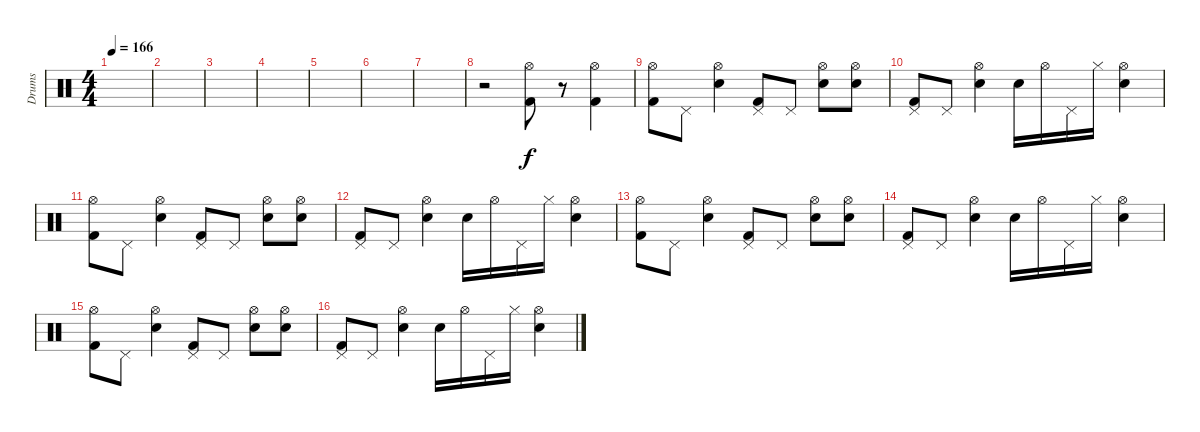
\track ("Drums" "Drums") {instrument percussion}
\staff {score}
\articulation defaults
\ts (4 4)
\tempo 166
\tempo 110
\tempo 166
\clef neutral
\ks c
|
|
|
|
|
|
|
r.2 ("Kick (hit) 2" "Hi-Hat (open)").8 r.8 ("Kick (hit) 2" "Hi-Hat (open)").4 |
("Kick (hit) 2" "Hi-Hat (open)").8 "Pedal Hi-Hat (hit)".8 ("Snare (hit) 2" "Hi-Hat (open)").4 ("Kick (hit) 2" "Pedal Hi-Hat (hit)").8 "Pedal Hi-Hat (hit)".8 ("Snare (hit) 2" "Hi-Hat (open)").8 ("Snare (hit) 2" "Hi-Hat (open)").8 |
("Kick (hit) 2" "Pedal Hi-Hat (hit)").8 "Pedal Hi-Hat (hit)".8 ("Snare (hit) 2" "Hi-Hat (open)").4 "Snare (hit) 2".16 "Hi-Hat (open)".16 "Pedal Hi-Hat (hit)".16 "Hi-Hat (closed)".16 ("Snare (hit) 2" "Hi-Hat (open)").4 |
("Kick (hit) 2" "Hi-Hat (open)").8 "Pedal Hi-Hat (hit)".8 ("Snare (hit) 2" "Hi-Hat (open)").4 ("Kick (hit) 2" "Pedal Hi-Hat (hit)").8 "Pedal Hi-Hat (hit)".8 ("Snare (hit) 2" "Hi-Hat (open)").8 ("Snare (hit) 2" "Hi-Hat (open)").8 |
("Kick (hit) 2" "Pedal Hi-Hat (hit)").8 "Pedal Hi-Hat (hit)".8 ("Snare (hit) 2" "Hi-Hat (open)").4 "Snare (hit) 2".16 "Hi-Hat (open)".16 "Pedal Hi-Hat (hit)".16 "Hi-Hat (closed)".16 ("Snare (hit) 2" "Hi-Hat (open)").4 |
("Kick (hit) 2" "Hi-Hat (open)").8 "Pedal Hi-Hat (hit)".8 ("Snare (hit) 2" "Hi-Hat (open)").4 ("Kick (hit) 2" "Pedal Hi-Hat (hit)").8 "Pedal Hi-Hat (hit)".8 ("Snare (hit) 2" "Hi-Hat (open)").8 ("Snare (hit) 2" "Hi-Hat (open)").8 |
("Kick (hit) 2" "Pedal Hi-Hat (hit)").8 "Pedal Hi-Hat (hit)".8 ("Snare (hit) 2" "Hi-Hat (open)").4 "Snare (hit) 2".16 "Hi-Hat (open)".16 "Pedal Hi-Hat (hit)".16 "Hi-Hat (closed)".16 ("Snare (hit) 2" "Hi-Hat (open)").4 |
("Kick (hit) 2" "Hi-Hat (open)").8 "Pedal Hi-Hat (hit)".8 ("Snare (hit) 2" "Hi-Hat (open)").4 ("Kick (hit) 2" "Pedal Hi-Hat (hit)").8 "Pedal Hi-Hat (hit)".8 ("Snare (hit) 2" "Hi-Hat (open)").8 ("Snare (hit) 2" "Hi-Hat (open)").8 |
("Kick (hit) 2" "Pedal Hi-Hat (hit)").8 "Pedal Hi-Hat (hit)".8 ("Snare (hit) 2" "Hi-Hat (open)").4 "Snare (hit) 2".16 "Hi-Hat (open)".16 "Pedal Hi-Hat (hit)".16 "Hi-Hat (closed)".16 ("Snare (hit) 2" "Hi-Hat (open)").4
